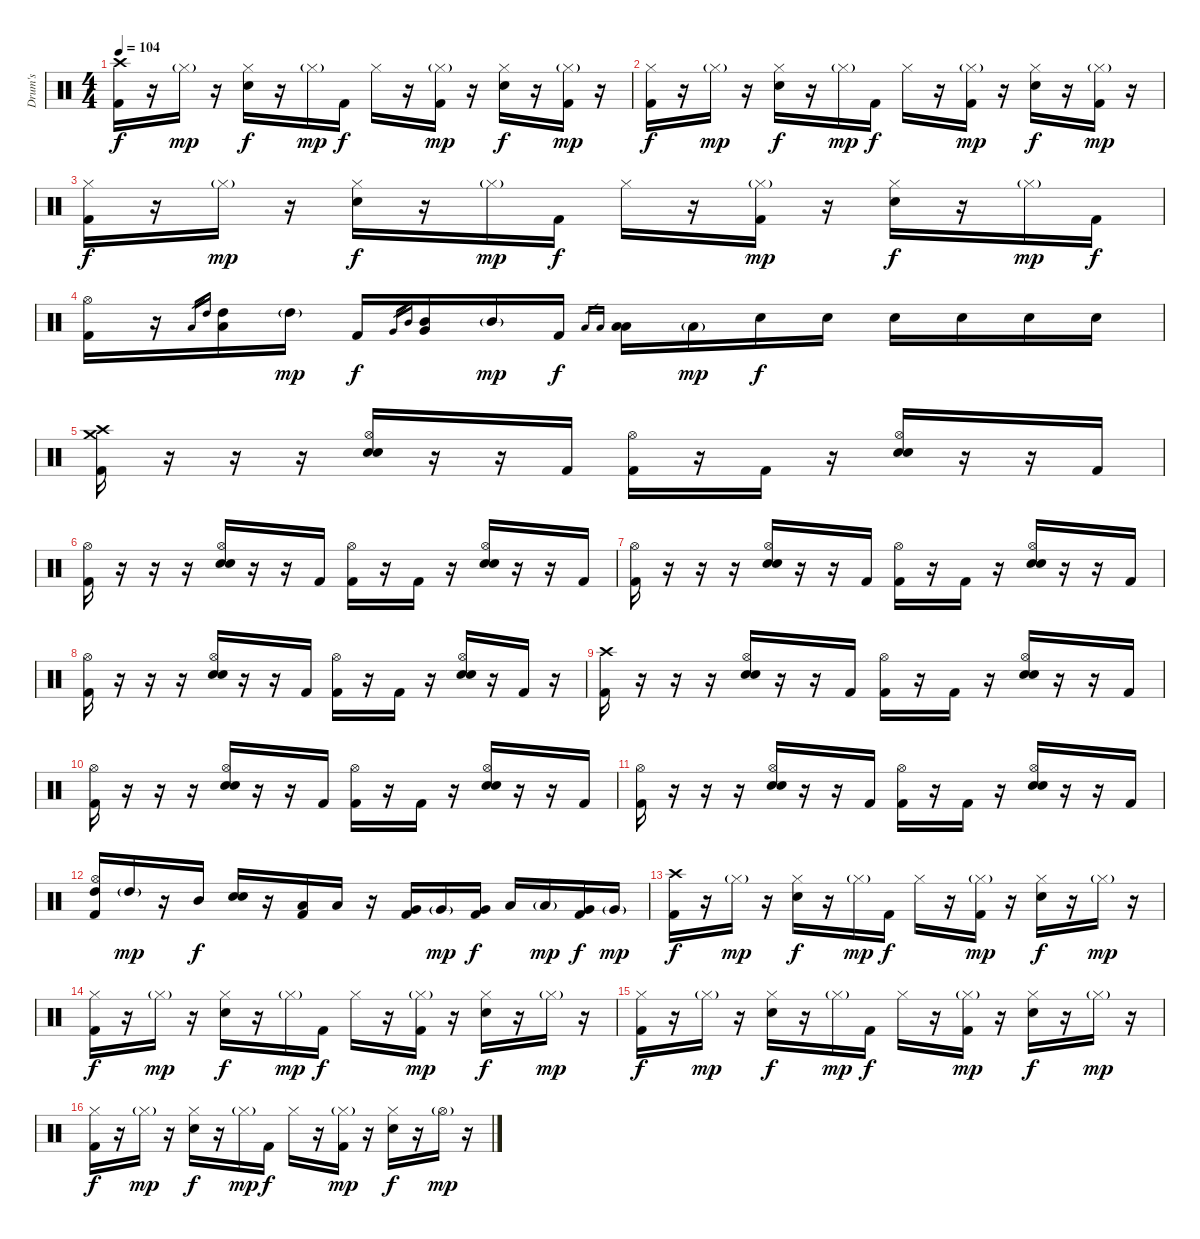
\track ("Drum's" "Drum's") {instrument percussion}
\staff {score}
\articulation defaults
\ts (4 4)
\tempo 104
\clef neutral
\ks c
("Crash high (hit)" "Kick (hit) 2").16{dy f} r.16 "Hi-Hat (closed)"{g}.16{dy mp} r.16 ("Hi-Hat (closed)" "Snare (hit) 2").16{dy f} r.16 "Hi-Hat (closed)"{g}.16{dy mp} "Kick (hit) 2".16{dy f} "Hi-Hat (closed)".16 r.16 ("Hi-Hat (closed)"{g} "Kick (hit) 2").16{dy mp} r.16 ("Hi-Hat (closed)" "Snare (hit) 2").16{dy f} r.16 ("Hi-Hat (closed)"{g} "Kick (hit) 2").16{dy mp} r.16 |
("Hi-Hat (closed)" "Kick (hit) 2").16{dy f} r.16 "Hi-Hat (closed)"{g}.16{dy mp} r.16 ("Hi-Hat (closed)" "Snare (hit) 2").16{dy f} r.16 "Hi-Hat (closed)"{g}.16{dy mp} "Kick (hit) 2".16{dy f} "Hi-Hat (closed)".16 r.16 ("Hi-Hat (closed)"{g} "Kick (hit) 2").16{dy mp} r.16 ("Hi-Hat (closed)" "Snare (hit) 2").16{dy f} r.16 ("Hi-Hat (closed)"{g} "Kick (hit) 2").16{dy mp} r.16 |
("Hi-Hat (closed)" "Kick (hit) 2").16{dy f} r.16 "Hi-Hat (closed)"{g}.16{dy mp} r.16 ("Hi-Hat (closed)" "Snare (hit) 2").16{dy f} r.16 "Hi-Hat (closed)"{g}.16{dy mp} "Kick (hit) 2".16{dy f} "Hi-Hat (closed)".16 r.16 ("Hi-Hat (closed)"{g} "Kick (hit) 2").16{dy mp} r.16 ("Hi-Hat (closed)" "Snare (hit) 2").16{dy f} r.16 "Hi-Hat (closed)"{g}.16{dy mp} "Kick (hit) 2".16{dy f} |
("Hi-Hat (open)" "Kick (hit) 2").16 r.16 "Low Tom (hit)".16{gr} "High Tom (hit)".16{gr} ("Low Tom (hit)" "High Tom (hit)").16 "High Tom (hit)"{g}.16{dy mp} "Kick (hit) 2".16{dy f} "Very Low Tom (hit)".16{gr} "Mid Tom (hit)".16{gr} ("Very Low Tom (hit)" "Mid Tom (hit)").16 "Mid Tom (hit)"{g}.16{dy mp} "Kick (hit) 2".16{dy f} "Low Floor Tom (hit)".16{gr} "Low Tom (hit)".16{gr} ("Low Floor Tom (hit)" "Low Tom (hit)").16 "Low Tom (hit)"{g}.16{dy mp} "Snare (hit) 2".16{dy f} "Snare (hit) 2".16 "Snare (hit) 2".16 "Snare (hit) 2".16 "Snare (hit) 2".16 "Snare (hit) 2".16 |
("Crash medium (hit)" "Crash high (hit)" "Kick (hit) 2").16 r.16 r.16 r.16 ("Hi-Hat (open)" "Electric Snare (hit)" "Snare (hit) 2").16 r.16 r.16 "Kick (hit) 2".16 ("Hi-Hat (open)" "Kick (hit) 2").16 r.16 "Kick (hit) 2".16 r.16 ("Hi-Hat (open)" "Electric Snare (hit)" "Snare (hit) 2").16 r.16 r.16 "Kick (hit) 2".16 |
("Hi-Hat (open)" "Kick (hit) 2").16 r.16 r.16 r.16 ("Hi-Hat (open)" "Electric Snare (hit)" "Snare (hit) 2").16 r.16 r.16 "Kick (hit) 2".16 ("Hi-Hat (open)" "Kick (hit) 2").16 r.16 "Kick (hit) 2".16 r.16 ("Hi-Hat (open)" "Electric Snare (hit)" "Snare (hit) 2").16 r.16 r.16 "Kick (hit) 2".16 |
("Hi-Hat (open)" "Kick (hit) 2").16 r.16 r.16 r.16 ("Hi-Hat (open)" "Electric Snare (hit)" "Snare (hit) 2").16 r.16 r.16 "Kick (hit) 2".16 ("Hi-Hat (open)" "Kick (hit) 2").16 r.16 "Kick (hit) 2".16 r.16 ("Hi-Hat (open)" "Electric Snare (hit)" "Snare (hit) 2").16 r.16 r.16 "Kick (hit) 2".16 |
("Hi-Hat (open)" "Kick (hit) 2").16 r.16 r.16 r.16 ("Hi-Hat (open)" "Electric Snare (hit)" "Snare (hit) 2").16 r.16 r.16 "Kick (hit) 2".16 ("Hi-Hat (open)" "Kick (hit) 2").16 r.16 "Kick (hit) 2".16 r.16 ("Hi-Hat (open)" "Electric Snare (hit)" "Snare (hit) 2").16 r.16 "Kick (hit) 2".16 r.16 |
("Crash high (hit)" "Kick (hit) 2").16 r.16 r.16 r.16 ("Hi-Hat (open)" "Electric Snare (hit)" "Snare (hit) 2").16 r.16 r.16 "Kick (hit) 2".16 ("Hi-Hat (open)" "Kick (hit) 2").16 r.16 "Kick (hit) 2".16 r.16 ("Hi-Hat (open)" "Electric Snare (hit)" "Snare (hit) 2").16 r.16 r.16 "Kick (hit) 2".16 |
("Hi-Hat (open)" "Kick (hit) 2").16 r.16 r.16 r.16 ("Hi-Hat (open)" "Electric Snare (hit)" "Snare (hit) 2").16 r.16 r.16 "Kick (hit) 2".16 ("Hi-Hat (open)" "Kick (hit) 2").16 r.16 "Kick (hit) 2".16 r.16 ("Hi-Hat (open)" "Electric Snare (hit)" "Snare (hit) 2").16 r.16 r.16 "Kick (hit) 2".16 |
("Hi-Hat (open)" "Kick (hit) 2").16 r.16 r.16 r.16 ("Hi-Hat (open)" "Electric Snare (hit)" "Snare (hit) 2").16 r.16 r.16 "Kick (hit) 2".16 ("Hi-Hat (open)" "Kick (hit) 2").16 r.16 "Kick (hit) 2".16 r.16 ("Hi-Hat (open)" "Electric Snare (hit)" "Snare (hit) 2").16 r.16 r.16 "Kick (hit) 2".16 |
("Hi-Hat (open)" "High Tom (hit)" "Kick (hit) 2").16 "High Tom (hit)"{g}.16{dy mp} r.16 "Mid Tom (hit)".16{dy f} ("Electric Snare (hit)" "Snare (hit) 2").16 r.16 ("Low Tom (hit)" "Kick (hit) 2").16 "Low Tom (hit)".16 r.16 ("Very Low Tom (hit)" "Kick (hit) 2").16 "Very Low Tom (hit)"{g}.16{dy mp} ("Very Low Tom (hit)" "Kick (hit) 2").16{dy f} "Low Tom (hit)".16 "Low Tom (hit)"{g}.16{dy mp} ("Very Low Tom (hit)" "Kick (hit) 2").16{dy f} "Very Low Tom (hit)"{g}.16{dy mp} |
("Crash high (hit)" "Kick (hit) 2").16{dy f} r.16 "Hi-Hat (closed)"{g}.16{dy mp} r.16 ("Hi-Hat (closed)" "Snare (hit) 2").16{dy f} r.16 "Hi-Hat (closed)"{g}.16{dy mp} "Kick (hit) 2".16{dy f} "Hi-Hat (closed)".16 r.16 ("Hi-Hat (closed)"{g} "Kick (hit) 2").16{dy mp} r.16 ("Hi-Hat (closed)" "Snare (hit) 2").16{dy f} r.16 "Hi-Hat (closed)"{g}.16{dy mp} r.16 |
("Hi-Hat (closed)" "Kick (hit) 2").16{dy f} r.16 "Hi-Hat (closed)"{g}.16{dy mp} r.16 ("Hi-Hat (closed)" "Snare (hit) 2").16{dy f} r.16 "Hi-Hat (closed)"{g}.16{dy mp} "Kick (hit) 2".16{dy f} "Hi-Hat (closed)".16 r.16 ("Hi-Hat (closed)"{g} "Kick (hit) 2").16{dy mp} r.16 ("Hi-Hat (closed)" "Snare (hit) 2").16{dy f} r.16 "Hi-Hat (closed)"{g}.16{dy mp} r.16 |
("Hi-Hat (closed)" "Kick (hit) 2").16{dy f} r.16 "Hi-Hat (closed)"{g}.16{dy mp} r.16 ("Hi-Hat (closed)" "Snare (hit) 2").16{dy f} r.16 "Hi-Hat (closed)"{g}.16{dy mp} "Kick (hit) 2".16{dy f} "Hi-Hat (closed)".16 r.16 ("Hi-Hat (closed)"{g} "Kick (hit) 2").16{dy mp} r.16 ("Hi-Hat (closed)" "Snare (hit) 2").16{dy f} r.16 "Hi-Hat (closed)"{g}.16{dy mp} r.16 |
("Hi-Hat (closed)" "Kick (hit) 2").16{dy f} r.16 "Hi-Hat (closed)"{g}.16{dy mp} r.16 ("Hi-Hat (closed)" "Snare (hit) 2").16{dy f} r.16 "Hi-Hat (closed)"{g}.16{dy mp} "Kick (hit) 2".16{dy f} "Hi-Hat (closed)".16 r.16 ("Hi-Hat (closed)"{g} "Kick (hit) 2").16{dy mp} r.16 ("Hi-Hat (closed)" "Snare (hit) 2").16{dy f} r.16 "Hi-Hat (open)"{g}.16{dy mp} r.16
